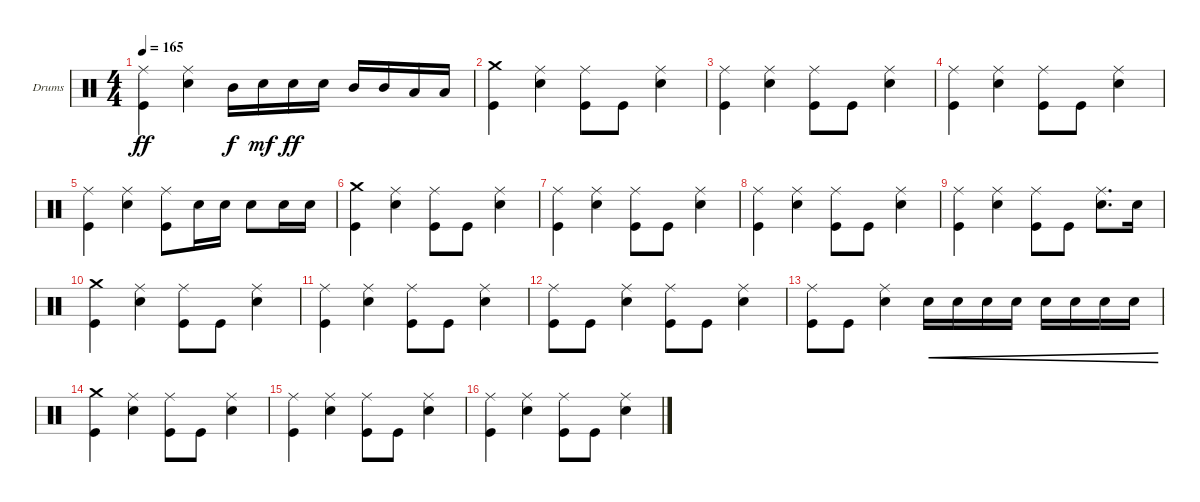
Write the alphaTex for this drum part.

\bracketExtendMode groupsimilarinstruments
\firstSystemTrackNameOrientation horizontal
\otherSystemsTrackNameOrientation horizontal
\track ("Drumkit" "Drums") {instrument percussion}
\staff {score}
\articulation defaults
\ts (4 4)
\tempo 165
\clef neutral
\ks c
("Kick (hit)" "Ride (middle)").4{dy ff} ("Snare (hit) 2" "Ride (middle)").4 "Mid Tom (hit)".16{dy f} "Snare (hit) 2".16{dy mf} "Snare (hit) 2".16{dy ff} "Snare (hit) 2".16 "Mid Tom (hit)".16 "Mid Tom (hit)".16 "Low Tom (hit)".16 "Low Tom (hit)".16 |
("Crash medium (hit)" "Kick (hit)").4 ("Ride (middle)" "Snare (hit) 2").4 ("Ride (middle)" "Kick (hit)").8 "Kick (hit)".8 ("Snare (hit) 2" "Ride (middle)").4 |
("Ride (middle)" "Kick (hit)").4 ("Ride (middle)" "Snare (hit) 2").4 ("Ride (middle)" "Kick (hit)").8 "Kick (hit)".8 ("Snare (hit) 2" "Ride (middle)").4 |
("Ride (middle)" "Kick (hit)").4 ("Ride (middle)" "Snare (hit) 2").4 ("Ride (middle)" "Kick (hit)").8 "Kick (hit)".8 ("Snare (hit) 2" "Ride (middle)").4 |
("Kick (hit)" "Ride (middle)").4 ("Ride (middle)" "Snare (hit) 2").4 ("Kick (hit)" "Ride (middle)").8 "Snare (hit) 2".16 "Snare (hit) 2".16 "Snare (hit) 2".8 "Snare (hit) 2".16 "Snare (hit) 2".16 |
("Crash medium (hit)" "Kick (hit)").4 ("Ride (middle)" "Snare (hit) 2").4 ("Ride (middle)" "Kick (hit)").8 "Kick (hit)".8 ("Snare (hit) 2" "Ride (middle)").4 |
("Ride (middle)" "Kick (hit)").4 ("Ride (middle)" "Snare (hit) 2").4 ("Ride (middle)" "Kick (hit)").8 "Kick (hit)".8 ("Snare (hit) 2" "Ride (middle)").4 |
("Ride (middle)" "Kick (hit)").4 ("Ride (middle)" "Snare (hit) 2").4 ("Ride (middle)" "Kick (hit)").8 "Kick (hit)".8 ("Snare (hit) 2" "Ride (middle)").4 |
("Ride (middle)" "Kick (hit)").4 ("Ride (middle)" "Snare (hit) 2").4 ("Ride (middle)" "Kick (hit)").8 "Kick (hit)".8 ("Snare (hit) 2" "Ride (middle)").8{d} "Snare (hit) 2".16 |
("Crash medium (hit)" "Kick (hit)").4 ("Ride (middle)" "Snare (hit) 2").4 ("Ride (middle)" "Kick (hit)").8 "Kick (hit)".8 ("Snare (hit) 2" "Ride (middle)").4 |
("Ride (middle)" "Kick (hit)").4 ("Ride (middle)" "Snare (hit) 2").4 ("Ride (middle)" "Kick (hit)").8 "Kick (hit)".8 ("Snare (hit) 2" "Ride (middle)").4 |
("Ride (middle)" "Kick (hit)").8 "Kick (hit)".8 ("Ride (middle)" "Snare (hit) 2").4 ("Ride (middle)" "Kick (hit)").8 "Kick (hit)".8 ("Snare (hit) 2" "Ride (middle)").4 |
("Ride (middle)" "Kick (hit)").8 "Kick (hit)".8 ("Ride (middle)" "Snare (hit) 2").4 "Snare (hit) 2".16{cre} "Snare (hit) 2".16{cre} "Snare (hit) 2".16{cre} "Snare (hit) 2".16{cre} "Snare (hit) 2".16{cre} "Snare (hit) 2".16{cre} "Snare (hit) 2".16{cre} "Snare (hit) 2".16{cre} |
("Crash medium (hit)" "Kick (hit)").4 ("Ride (middle)" "Snare (hit) 2").4 ("Ride (middle)" "Kick (hit)").8 "Kick (hit)".8 ("Snare (hit) 2" "Ride (middle)").4 |
("Ride (middle)" "Kick (hit)").4 ("Ride (middle)" "Snare (hit) 2").4 ("Ride (middle)" "Kick (hit)").8 "Kick (hit)".8 ("Snare (hit) 2" "Ride (middle)").4 |
("Ride (middle)" "Kick (hit)").4 ("Ride (middle)" "Snare (hit) 2").4 ("Ride (middle)" "Kick (hit)").8 "Kick (hit)".8 ("Snare (hit) 2" "Ride (middle)").4
